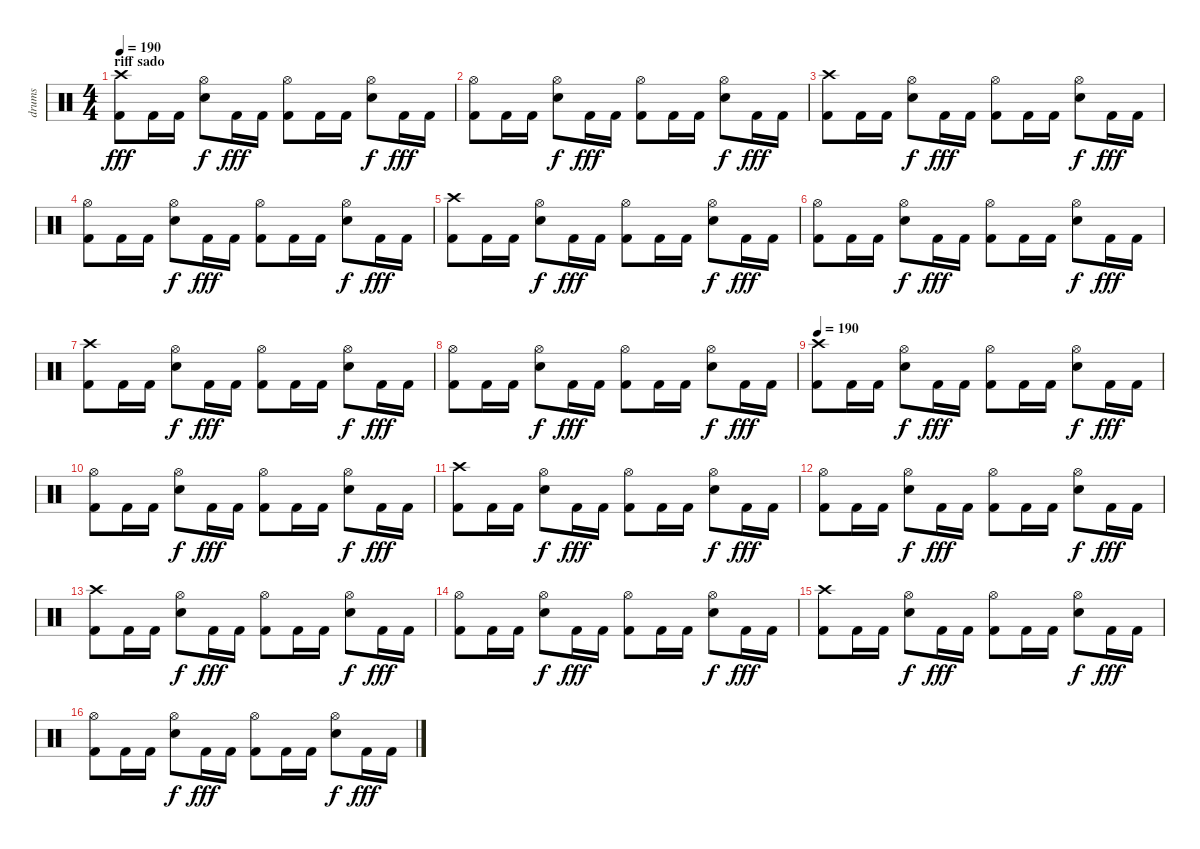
\track ("drums" "drums") {instrument percussion}
\staff {score}
\articulation defaults
\ts (4 4)
\section ("" "riff sado")
\tempo 190
\clef neutral
\ks c
("Crash high (hit)" "Kick (hit) 2").8{dy fff} "Kick (hit) 2".16 "Kick (hit) 2".16 ("Hi-Hat (open)" "Snare (hit) 2").8{dy f} "Kick (hit) 2".16{dy fff} "Kick (hit) 2".16 ("Hi-Hat (open)" "Kick (hit) 2").8 "Kick (hit) 2".16 "Kick (hit) 2".16 ("Hi-Hat (open)" "Snare (hit) 2").8{dy f} "Kick (hit) 2".16{dy fff} "Kick (hit) 2".16 |
("Hi-Hat (open)" "Kick (hit) 2").8 "Kick (hit) 2".16 "Kick (hit) 2".16 ("Hi-Hat (open)" "Snare (hit) 2").8{dy f} "Kick (hit) 2".16{dy fff} "Kick (hit) 2".16 ("Hi-Hat (open)" "Kick (hit) 2").8 "Kick (hit) 2".16 "Kick (hit) 2".16 ("Hi-Hat (open)" "Snare (hit) 2").8{dy f} "Kick (hit) 2".16{dy fff} "Kick (hit) 2".16 |
("Crash high (hit)" "Kick (hit) 2").8 "Kick (hit) 2".16 "Kick (hit) 2".16 ("Hi-Hat (open)" "Snare (hit) 2").8{dy f} "Kick (hit) 2".16{dy fff} "Kick (hit) 2".16 ("Hi-Hat (open)" "Kick (hit) 2").8 "Kick (hit) 2".16 "Kick (hit) 2".16 ("Hi-Hat (open)" "Snare (hit) 2").8{dy f} "Kick (hit) 2".16{dy fff} "Kick (hit) 2".16 |
("Hi-Hat (open)" "Kick (hit) 2").8 "Kick (hit) 2".16 "Kick (hit) 2".16 ("Hi-Hat (open)" "Snare (hit) 2").8{dy f} "Kick (hit) 2".16{dy fff} "Kick (hit) 2".16 ("Hi-Hat (open)" "Kick (hit) 2").8 "Kick (hit) 2".16 "Kick (hit) 2".16 ("Hi-Hat (open)" "Snare (hit) 2").8{dy f} "Kick (hit) 2".16{dy fff} "Kick (hit) 2".16 |
("Crash high (hit)" "Kick (hit) 2").8 "Kick (hit) 2".16 "Kick (hit) 2".16 ("Hi-Hat (open)" "Snare (hit) 2").8{dy f} "Kick (hit) 2".16{dy fff} "Kick (hit) 2".16 ("Hi-Hat (open)" "Kick (hit) 2").8 "Kick (hit) 2".16 "Kick (hit) 2".16 ("Hi-Hat (open)" "Snare (hit) 2").8{dy f} "Kick (hit) 2".16{dy fff} "Kick (hit) 2".16 |
("Hi-Hat (open)" "Kick (hit) 2").8 "Kick (hit) 2".16 "Kick (hit) 2".16 ("Hi-Hat (open)" "Snare (hit) 2").8{dy f} "Kick (hit) 2".16{dy fff} "Kick (hit) 2".16 ("Hi-Hat (open)" "Kick (hit) 2").8 "Kick (hit) 2".16 "Kick (hit) 2".16 ("Hi-Hat (open)" "Snare (hit) 2").8{dy f} "Kick (hit) 2".16{dy fff} "Kick (hit) 2".16 |
("Crash high (hit)" "Kick (hit) 2").8 "Kick (hit) 2".16 "Kick (hit) 2".16 ("Hi-Hat (open)" "Snare (hit) 2").8{dy f} "Kick (hit) 2".16{dy fff} "Kick (hit) 2".16 ("Hi-Hat (open)" "Kick (hit) 2").8 "Kick (hit) 2".16 "Kick (hit) 2".16 ("Hi-Hat (open)" "Snare (hit) 2").8{dy f} "Kick (hit) 2".16{dy fff} "Kick (hit) 2".16 |
("Hi-Hat (open)" "Kick (hit) 2").8 "Kick (hit) 2".16 "Kick (hit) 2".16 ("Hi-Hat (open)" "Snare (hit) 2").8{dy f} "Kick (hit) 2".16{dy fff} "Kick (hit) 2".16 ("Hi-Hat (open)" "Kick (hit) 2").8 "Kick (hit) 2".16 "Kick (hit) 2".16 ("Hi-Hat (open)" "Snare (hit) 2").8{dy f} "Kick (hit) 2".16{dy fff} "Kick (hit) 2".16 |
\tempo 190
("Crash high (hit)" "Kick (hit) 2").8 "Kick (hit) 2".16 "Kick (hit) 2".16 ("Hi-Hat (open)" "Snare (hit) 2").8{dy f} "Kick (hit) 2".16{dy fff} "Kick (hit) 2".16 ("Hi-Hat (open)" "Kick (hit) 2").8 "Kick (hit) 2".16 "Kick (hit) 2".16 ("Hi-Hat (open)" "Snare (hit) 2").8{dy f} "Kick (hit) 2".16{dy fff} "Kick (hit) 2".16 |
("Hi-Hat (open)" "Kick (hit) 2").8 "Kick (hit) 2".16 "Kick (hit) 2".16 ("Hi-Hat (open)" "Snare (hit) 2").8{dy f} "Kick (hit) 2".16{dy fff} "Kick (hit) 2".16 ("Hi-Hat (open)" "Kick (hit) 2").8 "Kick (hit) 2".16 "Kick (hit) 2".16 ("Hi-Hat (open)" "Snare (hit) 2").8{dy f} "Kick (hit) 2".16{dy fff} "Kick (hit) 2".16 |
("Crash high (hit)" "Kick (hit) 2").8 "Kick (hit) 2".16 "Kick (hit) 2".16 ("Hi-Hat (open)" "Snare (hit) 2").8{dy f} "Kick (hit) 2".16{dy fff} "Kick (hit) 2".16 ("Hi-Hat (open)" "Kick (hit) 2").8 "Kick (hit) 2".16 "Kick (hit) 2".16 ("Hi-Hat (open)" "Snare (hit) 2").8{dy f} "Kick (hit) 2".16{dy fff} "Kick (hit) 2".16 |
("Hi-Hat (open)" "Kick (hit) 2").8 "Kick (hit) 2".16 "Kick (hit) 2".16 ("Hi-Hat (open)" "Snare (hit) 2").8{dy f} "Kick (hit) 2".16{dy fff} "Kick (hit) 2".16 ("Hi-Hat (open)" "Kick (hit) 2").8 "Kick (hit) 2".16 "Kick (hit) 2".16 ("Hi-Hat (open)" "Snare (hit) 2").8{dy f} "Kick (hit) 2".16{dy fff} "Kick (hit) 2".16 |
("Crash high (hit)" "Kick (hit) 2").8 "Kick (hit) 2".16 "Kick (hit) 2".16 ("Hi-Hat (open)" "Snare (hit) 2").8{dy f} "Kick (hit) 2".16{dy fff} "Kick (hit) 2".16 ("Hi-Hat (open)" "Kick (hit) 2").8 "Kick (hit) 2".16 "Kick (hit) 2".16 ("Hi-Hat (open)" "Snare (hit) 2").8{dy f} "Kick (hit) 2".16{dy fff} "Kick (hit) 2".16 |
("Hi-Hat (open)" "Kick (hit) 2").8 "Kick (hit) 2".16 "Kick (hit) 2".16 ("Hi-Hat (open)" "Snare (hit) 2").8{dy f} "Kick (hit) 2".16{dy fff} "Kick (hit) 2".16 ("Hi-Hat (open)" "Kick (hit) 2").8 "Kick (hit) 2".16 "Kick (hit) 2".16 ("Hi-Hat (open)" "Snare (hit) 2").8{dy f} "Kick (hit) 2".16{dy fff} "Kick (hit) 2".16 |
("Crash high (hit)" "Kick (hit) 2").8 "Kick (hit) 2".16 "Kick (hit) 2".16 ("Hi-Hat (open)" "Snare (hit) 2").8{dy f} "Kick (hit) 2".16{dy fff} "Kick (hit) 2".16 ("Hi-Hat (open)" "Kick (hit) 2").8 "Kick (hit) 2".16 "Kick (hit) 2".16 ("Hi-Hat (open)" "Snare (hit) 2").8{dy f} "Kick (hit) 2".16{dy fff} "Kick (hit) 2".16 |
("Hi-Hat (open)" "Kick (hit) 2").8 "Kick (hit) 2".16 "Kick (hit) 2".16 ("Hi-Hat (open)" "Snare (hit) 2").8{dy f} "Kick (hit) 2".16{dy fff} "Kick (hit) 2".16 ("Hi-Hat (open)" "Kick (hit) 2").8 "Kick (hit) 2".16 "Kick (hit) 2".16 ("Hi-Hat (open)" "Snare (hit) 2").8{dy f} "Kick (hit) 2".16{dy fff} "Kick (hit) 2".16
